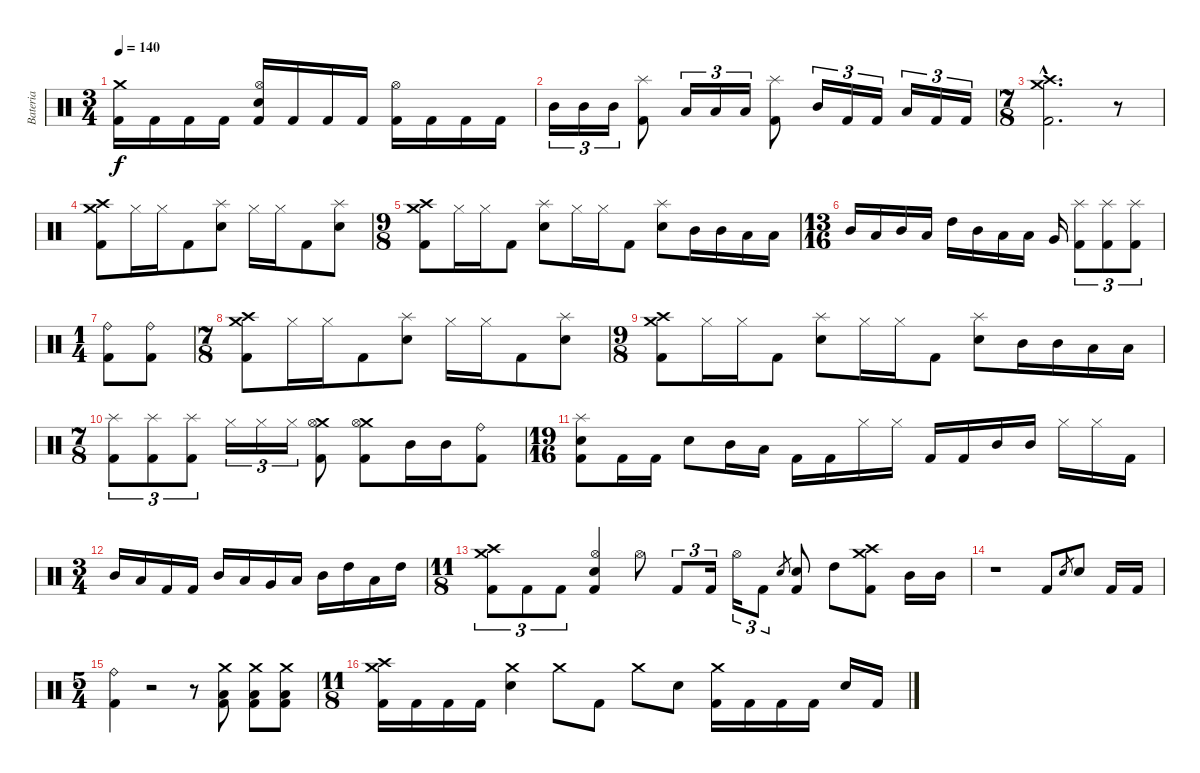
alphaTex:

\track ("Bateria" "Bateria") {instrument percussion}
\staff {score}
\articulation defaults
\ts (3 4)
\tempo 140
\clef neutral
\ks c
("Crash medium (hit)" "Kick (hit) 2").16{dy f} "Kick (hit) 2".16 "Kick (hit) 2".16 "Kick (hit) 2".16 ("Hi-Hat (open)" "Snare (hit) 2" "Kick (hit) 2").16 "Kick (hit) 2".16 "Kick (hit) 2".16 "Kick (hit) 2".16 ("Hi-Hat (open)" "Kick (hit) 2").16 "Kick (hit) 2".16 "Kick (hit) 2".16 "Kick (hit) 2".16 |
"Mid Tom (hit)".16{tu (3 2)} "Mid Tom (hit)".16{tu (3 2)} "Mid Tom (hit)".16{tu (3 2)} ("Splash (hit)" "Kick (hit) 2").8 "Low Tom (hit)".16{tu (3 2)} "Low Tom (hit)".16{tu (3 2)} "Low Tom (hit)".16{tu (3 2)} ("Splash (hit)" "Kick (hit) 2").8 "Mid Tom (hit)".16{tu (3 2)} "Kick (hit) 2".16{tu (3 2)} "Kick (hit) 2".16{tu (3 2)} "Low Tom (hit)".16{tu (3 2)} "Kick (hit) 2".16{tu (3 2)} "Kick (hit) 2".16{tu (3 2)} |
\ts (7 8)
("Crash medium (hit)"{hac} "Crash high (hit)"{hac} "Kick (hit) 2"{hac}).2{d} r.8 |
("Crash medium (hit)" "Crash high (hit)" "Kick (hit) 2").8 "Hi-Hat (closed)".16 "Hi-Hat (closed)".16 "Kick (hit) 2".8 ("Splash (hit)" "Snare (hit) 2").8 "Hi-Hat (closed)".16 "Hi-Hat (closed)".16 "Kick (hit) 2".8 ("Splash (hit)" "Snare (hit) 2").8 |
\ts (9 8)
("Crash medium (hit)" "Crash high (hit)" "Kick (hit) 2").8 "Hi-Hat (closed)".16 "Hi-Hat (closed)".16 "Kick (hit) 2".8 ("Splash (hit)" "Snare (hit) 2").8 "Hi-Hat (closed)".16 "Hi-Hat (closed)".16 "Kick (hit) 2".8 ("Splash (hit)" "Snare (hit) 2").8 "Mid Tom (hit)".16 "Mid Tom (hit)".16 "Low Tom (hit)".16 "Low Tom (hit)".16 |
\ts (13 16)
"Mid Tom (hit)".16 "Low Tom (hit)".16 "Mid Tom (hit)".16 "Low Tom (hit)".16 "High Tom (hit)".16 "Mid Tom (hit)".16 "Low Tom (hit)".16 "Low Tom (hit)".16 "Very Low Tom (hit)".16 ("Splash (hit)" "Kick (hit) 2").8{tu (3 2)} ("Splash (hit)" "Kick (hit) 2").8{tu (3 2)} ("Splash (hit)" "Kick (hit) 2").8{tu (3 2)} |
\ts (1 4)
("Ride (bell)" "Kick (hit) 2").8 ("Ride (bell)" "Kick (hit) 2").8 |
\ts (7 8)
("Crash medium (hit)" "Crash high (hit)" "Kick (hit) 2").8 "Hi-Hat (closed)".16 "Hi-Hat (closed)".16 "Kick (hit) 2".8 ("Splash (hit)" "Snare (hit) 2").8 "Hi-Hat (closed)".16 "Hi-Hat (closed)".16 "Kick (hit) 2".8 ("Splash (hit)" "Snare (hit) 2").8 |
\ts (9 8)
("Crash medium (hit)" "Crash high (hit)" "Kick (hit) 2").8 "Hi-Hat (closed)".16 "Hi-Hat (closed)".16 "Kick (hit) 2".8 ("Splash (hit)" "Snare (hit) 2").8 "Hi-Hat (closed)".16 "Hi-Hat (closed)".16 "Kick (hit) 2".8 ("Splash (hit)" "Snare (hit) 2").8 "Mid Tom (hit)".16 "Mid Tom (hit)".16 "Low Tom (hit)".16 "Low Tom (hit)".16 |
\ts (7 8)
("Splash (hit)" "Kick (hit) 2").8{tu (3 2)} ("Splash (hit)" "Kick (hit) 2").8{tu (3 2)} ("Splash (hit)" "Kick (hit) 2").8{tu (3 2)} "Hi-Hat (closed)".16{tu (3 2)} "Hi-Hat (closed)".16{tu (3 2)} "Hi-Hat (closed)".16{tu (3 2)} ("Crash medium (hit)" "Hi-Hat (open)" "Kick (hit) 2").8 ("Crash medium (hit)" "Hi-Hat (open)" "Kick (hit) 2").8 "Mid Tom (hit)".16 "Mid Tom (hit)".16 ("Ride (bell)" "Kick (hit) 2").8 |
\ts (19 16)
("Splash (hit)" "Snare (hit) 2" "Kick (hit) 2").8 "Kick (hit) 2".16 "Kick (hit) 2".16 "Snare (hit) 2".8 "Mid Tom (hit)".16 "Low Tom (hit)".16 "Kick (hit) 2".16 "Kick (hit) 2".16 "Hi-Hat (closed)".16 "Hi-Hat (closed)".16 "Kick (hit) 2".16 "Kick (hit) 2".16 "Mid Tom (hit)".16 "Mid Tom (hit)".16 "Hi-Hat (closed)".16 "Hi-Hat (closed)".16 "Kick (hit) 2".16 |
\ts (3 4)
"Mid Tom (hit)".16 "Low Tom (hit)".16 "Kick (hit) 2".16 "Kick (hit) 2".16 "Mid Tom (hit)".16 "Low Tom (hit)".16 "Very Low Tom (hit)".16 "Low Tom (hit)".16 "Mid Tom (hit)".16 "High Tom (hit)".16 "Low Tom (hit)".16 "High Tom (hit)".16 |
\ts (11 8)
("Crash high (hit)" "Crash medium (hit)" "Kick (hit) 2").8{tu (3 2)} "Kick (hit) 2".8{tu (3 2)} "Kick (hit) 2".8{tu (3 2)} ("Hi-Hat (open)" "Snare (hit) 2" "Kick (hit) 2").4 "Hi-Hat (open)".8 "Kick (hit) 2".8{tu (3 2)} "Kick (hit) 2".16{tu (3 2)} "Hi-Hat (open)".16{tu (3 2)} "Kick (hit) 2".8{tu (3 2)} "Snare (hit) 2".8{gr} ("Snare (hit) 2" "Kick (hit) 2").8 "High Tom (hit)".8 ("Crash medium (hit)" "Crash high (hit)" "Kick (hit) 2").8 "Mid Tom (hit)".16 "Mid Tom (hit)".16 |
r.1 "Kick (hit) 2".8 "Snare (hit) 2".8{gr} "Snare (hit) 2".8 "Kick (hit) 2".16 "Kick (hit) 2".16 |
\ts (5 4)
("Ride (bell)" "Kick (hit) 2").4 r.2 r.8 ("Crash medium (hit)" "Low Tom (hit)" "Kick (hit) 2").8 ("Crash medium (hit)" "Low Tom (hit)" "Kick (hit) 2").8 ("Crash medium (hit)" "Low Tom (hit)" "Kick (hit) 2").8 |
\ts (11 8)
("Crash high (hit)" "Crash medium (hit)" "Kick (hit) 2").16 "Kick (hit) 2".16 "Kick (hit) 2".16 "Kick (hit) 2".16 ("Crash medium (hit)" "Snare (hit) 2").4 "Crash medium (hit)".8 "Kick (hit) 2".8 "Crash medium (hit)".8 "Snare (hit) 2".8 ("Crash medium (hit)" "Kick (hit) 2").16 "Kick (hit) 2".16 "Kick (hit) 2".16 "Kick (hit) 2".16 "Snare (hit) 2".16 "Kick (hit) 2".16
